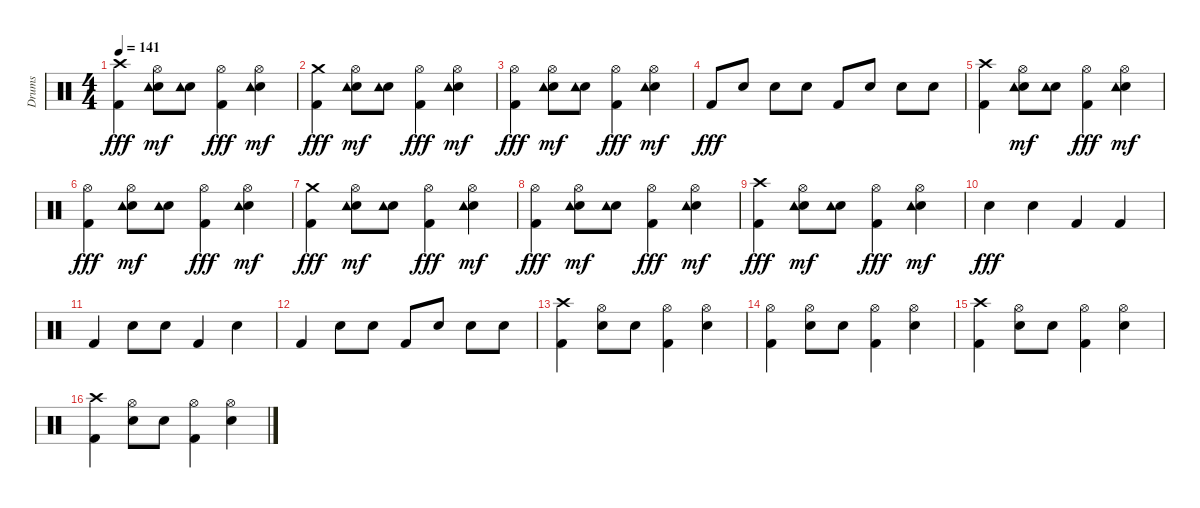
\track ("Drums" "Drums") {instrument percussion}
\staff {score}
\articulation defaults
\ts (4 4)
\tempo 141
\clef neutral
\ks c
("Crash high (hit)" "Kick (hit) 2").4{dy fff} ("Hi-Hat (open)" "Electric Snare (hit)" "Tambourine (hit)").8{dy mf} ("Electric Snare (hit)" "Tambourine (hit)").8 ("Hi-Hat (open)" "Kick (hit) 2").4{dy fff} ("Hi-Hat (open)" "Electric Snare (hit)" "Tambourine (hit)").4{dy mf} |
("Crash medium (hit)" "Kick (hit) 2").4{dy fff} ("Hi-Hat (open)" "Electric Snare (hit)" "Tambourine (hit)").8{dy mf} ("Electric Snare (hit)" "Tambourine (hit)").8 ("Hi-Hat (open)" "Kick (hit) 2").4{dy fff} ("Hi-Hat (open)" "Electric Snare (hit)" "Tambourine (hit)").4{dy mf} |
("Hi-Hat (open)" "Kick (hit) 2").4{dy fff} ("Hi-Hat (open)" "Electric Snare (hit)" "Tambourine (hit)").8{dy mf} ("Electric Snare (hit)" "Tambourine (hit)").8 ("Hi-Hat (open)" "Kick (hit) 2").4{dy fff} ("Hi-Hat (open)" "Electric Snare (hit)" "Tambourine (hit)").4{dy mf} |
"Kick (hit) 2".8{dy fff} "Electric Snare (hit)".8 "Electric Snare (hit)".8 "Electric Snare (hit)".8 "Kick (hit) 2".8 "Electric Snare (hit)".8 "Electric Snare (hit)".8 "Electric Snare (hit)".8 |
("Crash high (hit)" "Kick (hit) 2").4 ("Hi-Hat (open)" "Electric Snare (hit)" "Tambourine (hit)").8{dy mf} ("Electric Snare (hit)" "Tambourine (hit)").8 ("Hi-Hat (open)" "Kick (hit) 2").4{dy fff} ("Hi-Hat (open)" "Electric Snare (hit)" "Tambourine (hit)").4{dy mf} |
("Hi-Hat (open)" "Kick (hit) 2").4{dy fff} ("Hi-Hat (open)" "Electric Snare (hit)" "Tambourine (hit)").8{dy mf} ("Electric Snare (hit)" "Tambourine (hit)").8 ("Hi-Hat (open)" "Kick (hit) 2").4{dy fff} ("Hi-Hat (open)" "Electric Snare (hit)" "Tambourine (hit)").4{dy mf} |
("Crash medium (hit)" "Kick (hit) 2").4{dy fff} ("Hi-Hat (open)" "Electric Snare (hit)" "Tambourine (hit)").8{dy mf} ("Electric Snare (hit)" "Tambourine (hit)").8 ("Hi-Hat (open)" "Kick (hit) 2").4{dy fff} ("Hi-Hat (open)" "Electric Snare (hit)" "Tambourine (hit)").4{dy mf} |
("Hi-Hat (open)" "Kick (hit) 2").4{dy fff} ("Hi-Hat (open)" "Electric Snare (hit)" "Tambourine (hit)").8{dy mf} ("Electric Snare (hit)" "Tambourine (hit)").8 ("Hi-Hat (open)" "Kick (hit) 2").4{dy fff} ("Hi-Hat (open)" "Electric Snare (hit)" "Tambourine (hit)").4{dy mf} |
("Crash high (hit)" "Kick (hit) 2").4{dy fff} ("Hi-Hat (open)" "Electric Snare (hit)" "Tambourine (hit)").8{dy mf} ("Electric Snare (hit)" "Tambourine (hit)").8 ("Hi-Hat (open)" "Kick (hit) 2").4{dy fff} ("Hi-Hat (open)" "Electric Snare (hit)" "Tambourine (hit)").4{dy mf} |
"Electric Snare (hit)".4{dy fff} "Electric Snare (hit)".4 "Kick (hit) 2".4 "Kick (hit) 2".4 |
"Kick (hit) 2".4 "Electric Snare (hit)".8 "Electric Snare (hit)".8 "Kick (hit) 2".4 "Electric Snare (hit)".4 |
"Kick (hit) 2".4 "Electric Snare (hit)".8 "Electric Snare (hit)".8 "Kick (hit) 2".8 "Electric Snare (hit)".8 "Electric Snare (hit)".8 "Electric Snare (hit)".8 |
("Crash high (hit)" "Kick (hit) 2").4 ("Hi-Hat (open)" "Electric Snare (hit)").8 "Electric Snare (hit)".8 ("Hi-Hat (open)" "Kick (hit) 2").4 ("Hi-Hat (open)" "Electric Snare (hit)").4 |
("Hi-Hat (open)" "Kick (hit) 2").4 ("Hi-Hat (open)" "Electric Snare (hit)").8 "Electric Snare (hit)".8 ("Hi-Hat (open)" "Kick (hit) 2").4 ("Hi-Hat (open)" "Electric Snare (hit)").4 |
("Crash high (hit)" "Kick (hit) 2").4 ("Hi-Hat (open)" "Electric Snare (hit)").8 "Electric Snare (hit)".8 ("Hi-Hat (open)" "Kick (hit) 2").4 ("Hi-Hat (open)" "Electric Snare (hit)").4 |
("Crash high (hit)" "Kick (hit) 2").4 ("Hi-Hat (open)" "Electric Snare (hit)").8 "Electric Snare (hit)".8 ("Hi-Hat (open)" "Kick (hit) 2").4 ("Hi-Hat (open)" "Electric Snare (hit)").4
